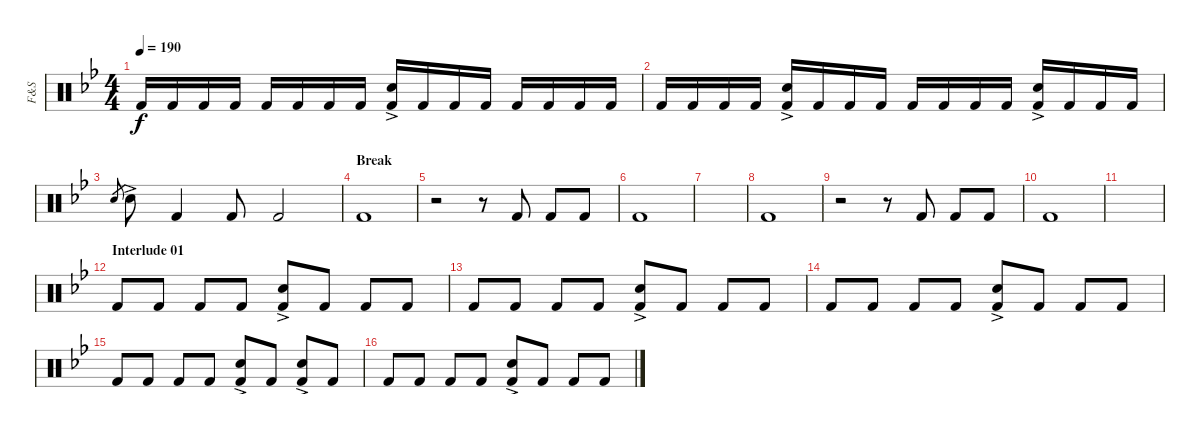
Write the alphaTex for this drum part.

\track ("F&S" "F&S") {instrument percussion}
\staff {score}
\articulation defaults
\ts (4 4)
\tempo 190
\clef neutral
\ks bb "Kick (hit) 2".16{dy f} "Kick (hit) 2".16 "Kick (hit) 2".16 "Kick (hit) 2".16 "Kick (hit) 2".16 "Kick (hit) 2".16 "Kick (hit) 2".16 "Kick (hit) 2".16
("Kick (hit) 2" "Snare (hit) 2"{ac}).16 "Kick (hit) 2".16 "Kick (hit) 2".16 "Kick (hit) 2".16 "Kick (hit) 2".16 "Kick (hit) 2".16 "Kick (hit) 2".16 "Kick (hit) 2".16 |
"Kick (hit) 2".16 "Kick (hit) 2".16 "Kick (hit) 2".16 "Kick (hit) 2".16 ("Kick (hit) 2" "Snare (hit) 2"{ac}).16 "Kick (hit) 2".16 "Kick (hit) 2".16 "Kick (hit) 2".16 "Kick (hit) 2".16 "Kick (hit) 2".16 "Kick (hit) 2".16 "Kick (hit) 2".16 ("Kick (hit) 2" "Snare (hit) 2"{ac}).16 "Kick (hit) 2".16 "Kick (hit) 2".16 "Kick (hit) 2".16 |
"Snare (hit)".8{gr} "Snare (hit) 2"{ac}.8 "Kick (hit) 2".4 "Kick (hit) 2".8 "Kick (hit) 2".2 |
\section ("" "Break")
"Kick (hit) 2".1 |
r.2 r.8 "Kick (hit) 2".8 "Kick (hit) 2".8 "Kick (hit) 2".8 |
"Kick (hit) 2".1 |
|
"Kick (hit) 2".1 |
r.2 r.8 "Kick (hit) 2".8 "Kick (hit) 2".8 "Kick (hit) 2".8 |
"Kick (hit) 2".1 |
|
\section ("" "Interlude 01")
"Kick (hit) 2".8 "Kick (hit) 2".8 "Kick (hit) 2".8 "Kick (hit) 2".8 ("Kick (hit) 2" "Snare (hit) 2"{ac}).8 "Kick (hit) 2".8 "Kick (hit) 2".8 "Kick (hit) 2".8 |
"Kick (hit) 2".8 "Kick (hit) 2".8 "Kick (hit) 2".8 "Kick (hit) 2".8 ("Kick (hit) 2" "Snare (hit) 2"{ac}).8 "Kick (hit) 2".8 "Kick (hit) 2".8 "Kick (hit) 2".8 |
"Kick (hit) 2".8 "Kick (hit) 2".8 "Kick (hit) 2".8 "Kick (hit) 2".8 ("Kick (hit) 2" "Snare (hit) 2"{ac}).8 "Kick (hit) 2".8 "Kick (hit) 2".8 "Kick (hit) 2".8 |
"Kick (hit) 2".8 "Kick (hit) 2".8 "Kick (hit) 2".8 "Kick (hit) 2".8 ("Kick (hit) 2" "Snare (hit) 2"{ac}).8 "Kick (hit) 2".8 ("Kick (hit) 2" "Snare (hit) 2"{ac}).8 "Kick (hit) 2".8 |
"Kick (hit) 2".8 "Kick (hit) 2".8 "Kick (hit) 2".8 "Kick (hit) 2".8 ("Kick (hit) 2" "Snare (hit) 2"{ac}).8 "Kick (hit) 2".8 "Kick (hit) 2".8 "Kick (hit) 2".8
